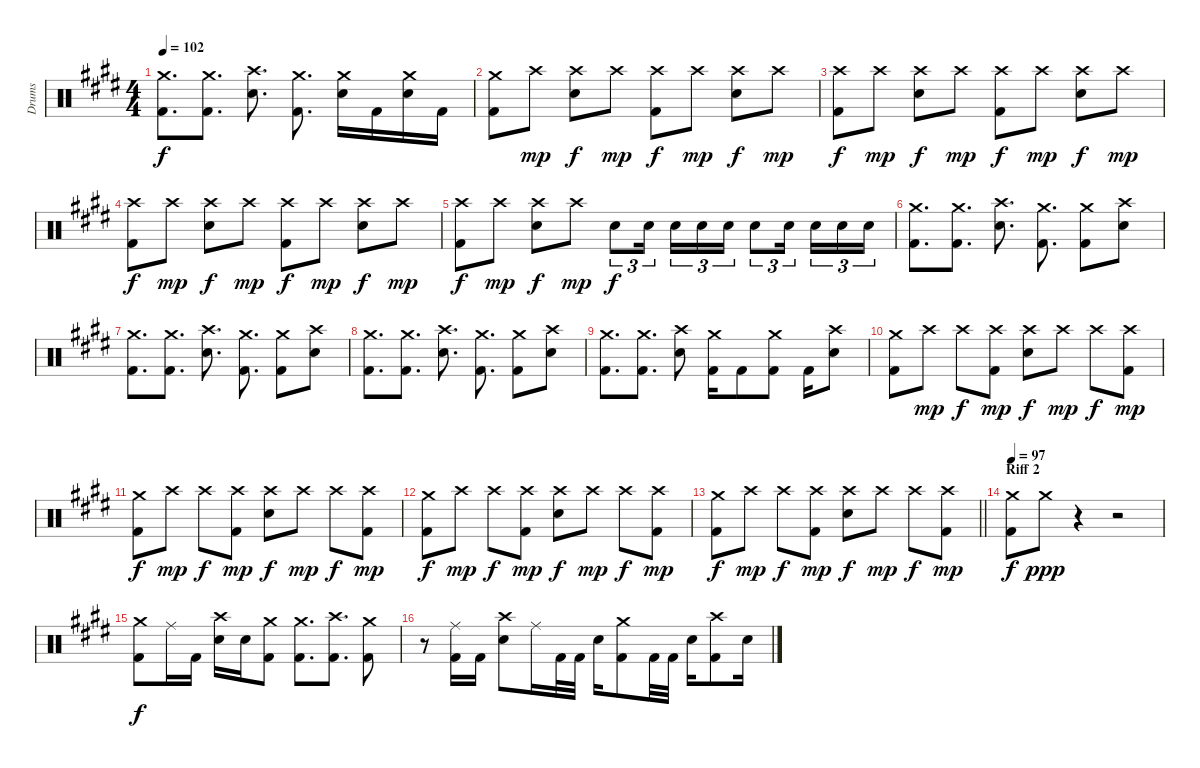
\track ("Drums" "Drums") {instrument percussion}
\staff {score}
\articulation defaults
\ts (4 4)
\tempo 102
\clef neutral
\ks e
("Crash medium (hit)" "Kick (hit) 2").8{d dy f} ("Crash medium (hit)" "Kick (hit) 2").8{d} ("Crash high (hit)" "Electric Snare (hit)").8{d} ("Kick (hit) 2" "Crash medium (hit)").8{d} ("Electric Snare (hit)" "Crash medium (hit)").16 "Kick (hit) 2".16 ("Electric Snare (hit)" "Crash medium (hit)").16 "Kick (hit) 2".16 |
("Crash medium (hit)" "Kick (hit) 2").8 "Crash high (hit)".8{dy mp} ("Electric Snare (hit)" "Crash high (hit)").8{dy f} "Crash high (hit)".8{dy mp} ("Crash high (hit)" "Kick (hit) 2").8{dy f} "Crash high (hit)".8{dy mp} ("Crash high (hit)" "Electric Snare (hit)").8{dy f} "Crash high (hit)".8{dy mp} |
("Crash high (hit)" "Kick (hit) 2").8{dy f} "Crash high (hit)".8{dy mp} ("Crash high (hit)" "Electric Snare (hit)").8{dy f} "Crash high (hit)".8{dy mp} ("Crash high (hit)" "Kick (hit) 2").8{dy f} "Crash high (hit)".8{dy mp} ("Crash high (hit)" "Electric Snare (hit)").8{dy f} "Crash high (hit)".8{dy mp} |
("Crash high (hit)" "Kick (hit) 2").8{dy f} "Crash high (hit)".8{dy mp} ("Crash high (hit)" "Electric Snare (hit)").8{dy f} "Crash high (hit)".8{dy mp} ("Crash high (hit)" "Kick (hit) 2").8{dy f} "Crash high (hit)".8{dy mp} ("Crash high (hit)" "Electric Snare (hit)").8{dy f} "Crash high (hit)".8{dy mp} |
("Crash high (hit)" "Kick (hit) 2").8{dy f} "Crash high (hit)".8{dy mp} ("Crash high (hit)" "Electric Snare (hit)").8{dy f} "Crash high (hit)".8{dy mp} "Electric Snare (hit)".8{tu (3 2) dy f} "Electric Snare (hit)".16{tu (3 2) beam splitsecondary} "Electric Snare (hit)".16{tu (3 2)} "Electric Snare (hit)".16{tu (3 2)} "Electric Snare (hit)".16{tu (3 2)} "Electric Snare (hit)".8{tu (3 2)} "Electric Snare (hit)".16{tu (3 2) beam splitsecondary} "Electric Snare (hit)".16{tu (3 2)} "Electric Snare (hit)".16{tu (3 2)} "Electric Snare (hit)".16{tu (3 2)} |
("Crash medium (hit)" "Kick (hit) 2").8{d} ("Crash medium (hit)" "Kick (hit) 2").8{d} ("Crash high (hit)" "Electric Snare (hit)").8{d} ("Kick (hit) 2" "Crash medium (hit)").8{d} ("Crash medium (hit)" "Kick (hit) 2").8 ("Crash high (hit)" "Electric Snare (hit)").8 |
("Crash medium (hit)" "Kick (hit) 2").8{d} ("Crash medium (hit)" "Kick (hit) 2").8{d} ("Crash high (hit)" "Electric Snare (hit)").8{d} ("Kick (hit) 2" "Crash medium (hit)").8{d} ("Crash medium (hit)" "Kick (hit) 2").8 ("Crash high (hit)" "Electric Snare (hit)").8 |
("Crash medium (hit)" "Kick (hit) 2").8{d} ("Crash medium (hit)" "Kick (hit) 2").8{d} ("Crash high (hit)" "Electric Snare (hit)").8{d} ("Kick (hit) 2" "Crash medium (hit)").8{d} ("Crash medium (hit)" "Kick (hit) 2").8 ("Crash high (hit)" "Electric Snare (hit)").8 |
("Crash medium (hit)" "Kick (hit) 2").8{d} ("Crash medium (hit)" "Kick (hit) 2").8{d} ("Crash high (hit)" "Electric Snare (hit)").8 ("Kick (hit) 2" "Crash medium (hit)").16 "Kick (hit) 2".8 ("Kick (hit) 2" "Crash medium (hit)").8 "Kick (hit) 2".16 ("Electric Snare (hit)" "Crash high (hit)").8 |
("Crash medium (hit)" "Kick (hit) 2").8 "Crash high (hit)".8{dy mp} "Crash high (hit)".8{dy f} ("Crash high (hit)" "Kick (hit) 2").8{dy mp} ("Crash high (hit)" "Electric Snare (hit)").8{dy f} "Crash high (hit)".8{dy mp} "Crash high (hit)".8{dy f} ("Crash high (hit)" "Kick (hit) 2").8{dy mp} |
("Crash medium (hit)" "Kick (hit) 2").8{dy f} "Crash high (hit)".8{dy mp} "Crash high (hit)".8{dy f} ("Crash high (hit)" "Kick (hit) 2").8{dy mp} ("Crash high (hit)" "Electric Snare (hit)").8{dy f} "Crash high (hit)".8{dy mp} "Crash high (hit)".8{dy f} ("Crash high (hit)" "Kick (hit) 2").8{dy mp} |
("Crash medium (hit)" "Kick (hit) 2").8{dy f} "Crash high (hit)".8{dy mp} "Crash high (hit)".8{dy f} ("Crash high (hit)" "Kick (hit) 2").8{dy mp} ("Crash high (hit)" "Electric Snare (hit)").8{dy f} "Crash high (hit)".8{dy mp} "Crash high (hit)".8{dy f} ("Crash high (hit)" "Kick (hit) 2").8{dy mp} |
\barLineRight lightlight
("Crash medium (hit)" "Kick (hit) 2").8{dy f} "Crash high (hit)".8{dy mp} "Crash high (hit)".8{dy f} ("Crash high (hit)" "Kick (hit) 2").8{dy mp} ("Crash high (hit)" "Electric Snare (hit)").8{dy f} "Crash high (hit)".8{dy mp} "Crash high (hit)".8{dy f} ("Crash high (hit)" "Kick (hit) 2").8{dy mp} |
\section ("" "Riff 2")
\tempo 97
("Crash medium (hit)" "Kick (hit) 2").8{dy f} "Crash medium (hit)".8{dy ppp} r.4 r.2 |
("Crash medium (hit)" "Kick (hit) 2").8{dy f} "Ride (middle)".16 "Kick (hit) 2".16 ("Crash high (hit)" "Electric Snare (hit)").16 "Electric Snare (hit)".16 ("Kick (hit) 2" "Crash medium (hit)").8 ("Kick (hit) 2" "Crash medium (hit)").8{d} ("Kick (hit) 2" "Crash high (hit)").8{d} ("Kick (hit) 2" "Crash medium (hit)").8 |
r.8 ("Kick (hit) 2" "Ride (middle)").16 "Kick (hit) 2".16 ("Electric Snare (hit)" "Crash high (hit)").8 "Ride (middle)".16 "Kick (hit) 2".32 "Kick (hit) 2".32 "Electric Snare (hit)".16 ("Kick (hit) 2" "Crash medium (hit)").8 "Kick (hit) 2".32 "Kick (hit) 2".32 "Electric Snare (hit)".16 ("Kick (hit) 2" "Crash high (hit)").8 "Electric Snare (hit)".16
